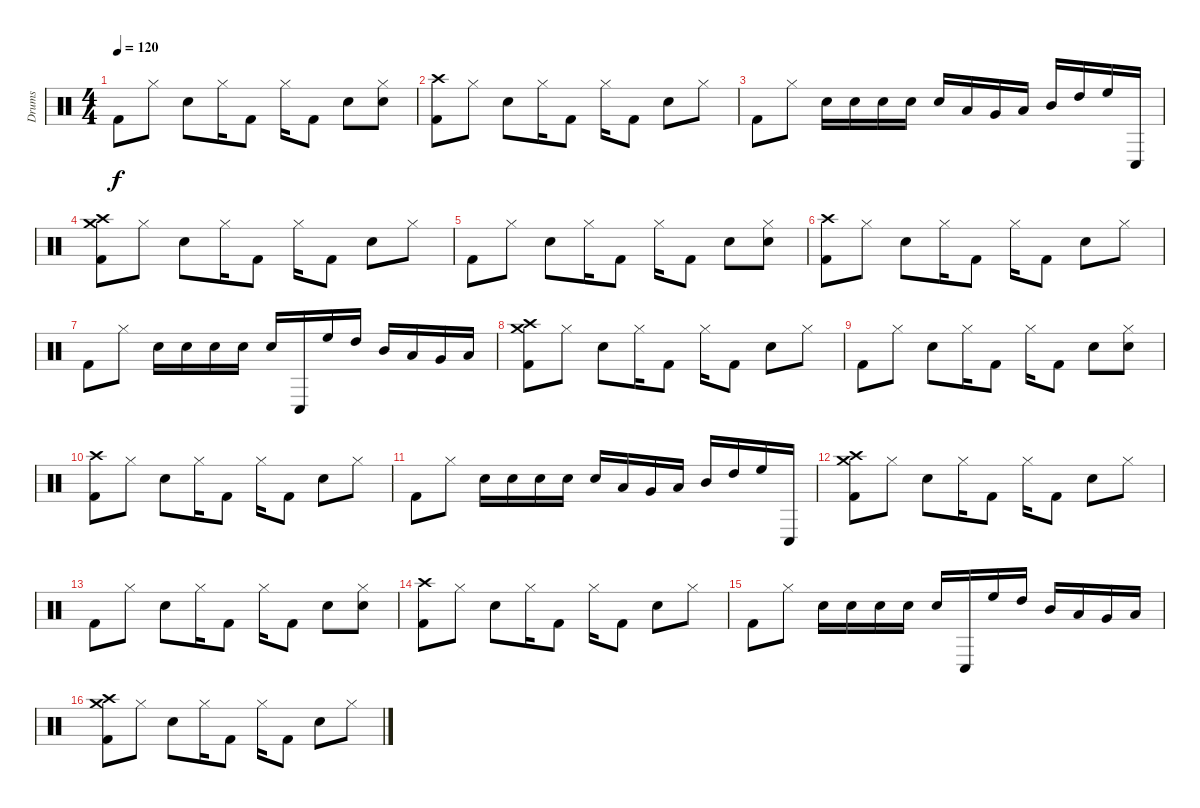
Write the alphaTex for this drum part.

\track ("Drums" "Drums") {instrument percussion}
\staff {score}
\articulation defaults
\ts (4 4)
\tempo 120
\clef neutral
\ks c "Kick (hit) 2".8{dy f} "Hi-Hat (closed)".8 "Snare (hit) 2".8 "Hi-Hat (closed)".16 "Kick (hit) 2".8 "Hi-Hat (closed)".16 "Kick (hit) 2".8 "Snare (hit) 2".8
("Snare (hit) 2" "Hi-Hat (closed)").8 |
("Kick (hit) 2" "Crash high (hit)").8 "Hi-Hat (closed)".8 "Snare (hit) 2".8 "Hi-Hat (closed)".16 "Kick (hit) 2".8 "Hi-Hat (closed)".16 "Kick (hit) 2".8 "Snare (hit) 2".8 "Hi-Hat (closed)".8 |
"Kick (hit) 2".8 "Hi-Hat (closed)".8 "Snare (hit) 2".16 "Snare (hit) 2".16 "Snare (hit) 2".16 "Snare (hit) 2".16 "Snare (hit) 2".16 "Low Floor Tom (hit)".16 "Very Low Tom (hit)".16 "Low Tom (hit)".16 "Mid Tom (hit)".16 "High Tom (hit)".16 "High Floor Tom (hit)".16 "Conga low (hit)".16 |
("Kick (hit) 2" "Crash medium (hit)" "Crash high (hit)").8 "Hi-Hat (closed)".8 "Snare (hit) 2".8 "Hi-Hat (closed)".16 "Kick (hit) 2".8 "Hi-Hat (closed)".16 "Kick (hit) 2".8 "Snare (hit) 2".8 "Hi-Hat (closed)".8 |
"Kick (hit) 2".8 "Hi-Hat (closed)".8 "Snare (hit) 2".8 "Hi-Hat (closed)".16 "Kick (hit) 2".8 "Hi-Hat (closed)".16 "Kick (hit) 2".8 "Snare (hit) 2".8 ("Snare (hit) 2" "Hi-Hat (closed)").8 |
("Kick (hit) 2" "Crash high (hit)").8 "Hi-Hat (closed)".8 "Snare (hit) 2".8 "Hi-Hat (closed)".16 "Kick (hit) 2".8 "Hi-Hat (closed)".16 "Kick (hit) 2".8 "Snare (hit) 2".8 "Hi-Hat (closed)".8 |
"Kick (hit) 2".8 "Hi-Hat (closed)".8 "Snare (hit) 2".16 "Snare (hit) 2".16 "Snare (hit) 2".16 "Snare (hit) 2".16 "Snare (hit) 2".16 "Conga low (hit)".16 "High Floor Tom (hit)".16 "High Tom (hit)".16 "Mid Tom (hit)".16 "Low Tom (hit)".16 "Very Low Tom (hit)".16 "Low Floor Tom (hit)".16 |
("Kick (hit) 2" "Crash medium (hit)" "Crash high (hit)").8 "Hi-Hat (closed)".8 "Snare (hit) 2".8 "Hi-Hat (closed)".16 "Kick (hit) 2".8 "Hi-Hat (closed)".16 "Kick (hit) 2".8 "Snare (hit) 2".8 "Hi-Hat (closed)".8 |
"Kick (hit) 2".8 "Hi-Hat (closed)".8 "Snare (hit) 2".8 "Hi-Hat (closed)".16 "Kick (hit) 2".8 "Hi-Hat (closed)".16 "Kick (hit) 2".8 "Snare (hit) 2".8 ("Snare (hit) 2" "Hi-Hat (closed)").8 |
("Kick (hit) 2" "Crash high (hit)").8 "Hi-Hat (closed)".8 "Snare (hit) 2".8 "Hi-Hat (closed)".16 "Kick (hit) 2".8 "Hi-Hat (closed)".16 "Kick (hit) 2".8 "Snare (hit) 2".8 "Hi-Hat (closed)".8 |
"Kick (hit) 2".8 "Hi-Hat (closed)".8 "Snare (hit) 2".16 "Snare (hit) 2".16 "Snare (hit) 2".16 "Snare (hit) 2".16 "Snare (hit) 2".16 "Low Floor Tom (hit)".16 "Very Low Tom (hit)".16 "Low Tom (hit)".16 "Mid Tom (hit)".16 "High Tom (hit)".16 "High Floor Tom (hit)".16 "Conga low (hit)".16 |
("Kick (hit) 2" "Crash medium (hit)" "Crash high (hit)").8 "Hi-Hat (closed)".8 "Snare (hit) 2".8 "Hi-Hat (closed)".16 "Kick (hit) 2".8 "Hi-Hat (closed)".16 "Kick (hit) 2".8 "Snare (hit) 2".8 "Hi-Hat (closed)".8 |
"Kick (hit) 2".8 "Hi-Hat (closed)".8 "Snare (hit) 2".8 "Hi-Hat (closed)".16 "Kick (hit) 2".8 "Hi-Hat (closed)".16 "Kick (hit) 2".8 "Snare (hit) 2".8 ("Snare (hit) 2" "Hi-Hat (closed)").8 |
("Kick (hit) 2" "Crash high (hit)").8 "Hi-Hat (closed)".8 "Snare (hit) 2".8 "Hi-Hat (closed)".16 "Kick (hit) 2".8 "Hi-Hat (closed)".16 "Kick (hit) 2".8 "Snare (hit) 2".8 "Hi-Hat (closed)".8 |
"Kick (hit) 2".8 "Hi-Hat (closed)".8 "Snare (hit) 2".16 "Snare (hit) 2".16 "Snare (hit) 2".16 "Snare (hit) 2".16 "Snare (hit) 2".16 "Conga low (hit)".16 "High Floor Tom (hit)".16 "High Tom (hit)".16 "Mid Tom (hit)".16 "Low Tom (hit)".16 "Very Low Tom (hit)".16 "Low Floor Tom (hit)".16 |
("Kick (hit) 2" "Crash medium (hit)" "Crash high (hit)").8 "Hi-Hat (closed)".8 "Snare (hit) 2".8 "Hi-Hat (closed)".16 "Kick (hit) 2".8 "Hi-Hat (closed)".16 "Kick (hit) 2".8 "Snare (hit) 2".8 "Hi-Hat (closed)".8
